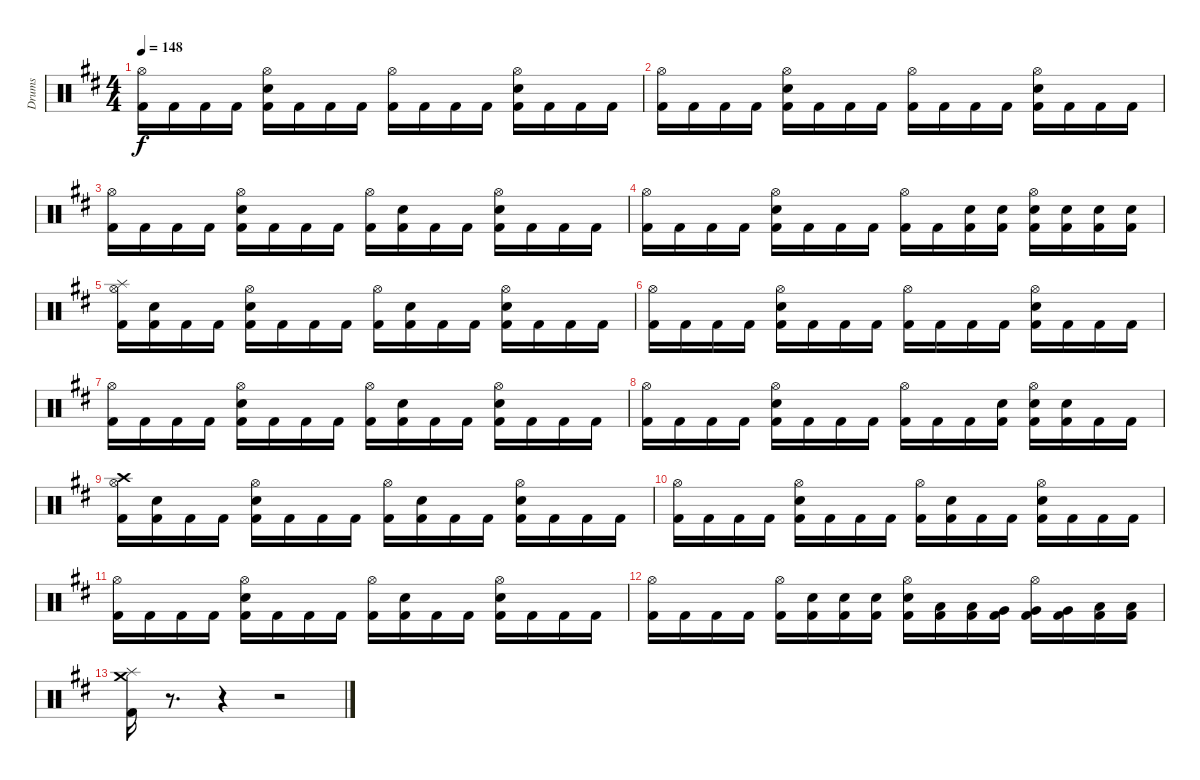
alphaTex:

\track ("Drums" "Drums") {instrument percussion}
\staff {score}
\articulation defaults
\ts (4 4)
\tempo 148
\clef neutral
\ks d
("Hi-Hat (open)" "Kick (hit) 2").16{dy f} "Kick (hit) 2".16 "Kick (hit) 2".16 "Kick (hit) 2".16 ("Hi-Hat (open)" "Kick (hit) 2" "Snare (hit) 2").16 "Kick (hit) 2".16 "Kick (hit) 2".16 "Kick (hit) 2".16 ("Hi-Hat (open)" "Kick (hit) 2").16 "Kick (hit) 2".16 "Kick (hit) 2".16 "Kick (hit) 2".16 ("Hi-Hat (open)" "Kick (hit) 2" "Snare (hit) 2").16 "Kick (hit) 2".16 "Kick (hit) 2".16 "Kick (hit) 2".16 |
("Hi-Hat (open)" "Kick (hit) 2").16 "Kick (hit) 2".16 "Kick (hit) 2".16 "Kick (hit) 2".16 ("Hi-Hat (open)" "Kick (hit) 2" "Snare (hit) 2").16 "Kick (hit) 2".16 "Kick (hit) 2".16 "Kick (hit) 2".16 ("Hi-Hat (open)" "Kick (hit) 2").16 "Kick (hit) 2".16 "Kick (hit) 2".16 "Kick (hit) 2".16 ("Hi-Hat (open)" "Kick (hit) 2" "Snare (hit) 2").16 "Kick (hit) 2".16 "Kick (hit) 2".16 "Kick (hit) 2".16 |
("Hi-Hat (open)" "Kick (hit) 2").16 "Kick (hit) 2".16 "Kick (hit) 2".16 "Kick (hit) 2".16 ("Hi-Hat (open)" "Kick (hit) 2" "Snare (hit) 2").16 "Kick (hit) 2".16 "Kick (hit) 2".16 "Kick (hit) 2".16 ("Hi-Hat (open)" "Kick (hit) 2").16 ("Kick (hit) 2" "Snare (hit) 2").16 "Kick (hit) 2".16 "Kick (hit) 2".16 ("Hi-Hat (open)" "Kick (hit) 2" "Snare (hit) 2").16 "Kick (hit) 2".16 "Kick (hit) 2".16 "Kick (hit) 2".16 |
("Hi-Hat (open)" "Kick (hit) 2").16 "Kick (hit) 2".16 "Kick (hit) 2".16 "Kick (hit) 2".16 ("Hi-Hat (open)" "Kick (hit) 2" "Snare (hit) 2").16 "Kick (hit) 2".16 "Kick (hit) 2".16 "Kick (hit) 2".16 ("Hi-Hat (open)" "Kick (hit) 2").16 "Kick (hit) 2".16 ("Kick (hit) 2" "Snare (hit) 2").16 ("Kick (hit) 2" "Snare (hit) 2").16 ("Hi-Hat (open)" "Kick (hit) 2" "Snare (hit) 2").16 ("Kick (hit) 2" "Snare (hit) 2").16 ("Kick (hit) 2" "Snare (hit) 2").16 ("Kick (hit) 2" "Snare (hit) 2").16 |
("Hi-Hat (open)" "Splash (hit)" "Kick (hit) 2").16 ("Snare (hit)" "Kick (hit) 2").16 "Kick (hit) 2".16 "Kick (hit) 2".16 ("Hi-Hat (open)" "Kick (hit) 2" "Snare (hit) 2").16 "Kick (hit) 2".16 "Kick (hit) 2".16 "Kick (hit) 2".16 ("Hi-Hat (open)" "Kick (hit) 2").16 ("Kick (hit) 2" "Snare (hit) 2").16 "Kick (hit) 2".16 "Kick (hit) 2".16 ("Hi-Hat (open)" "Kick (hit) 2" "Snare (hit) 2").16 "Kick (hit) 2".16 "Kick (hit) 2".16 "Kick (hit) 2".16 |
("Hi-Hat (open)" "Kick (hit) 2").16 "Kick (hit) 2".16 "Kick (hit) 2".16 "Kick (hit) 2".16 ("Hi-Hat (open)" "Kick (hit) 2" "Snare (hit) 2").16 "Kick (hit) 2".16 "Kick (hit) 2".16 "Kick (hit) 2".16 ("Hi-Hat (open)" "Kick (hit) 2").16 "Kick (hit) 2".16 "Kick (hit) 2".16 "Kick (hit) 2".16 ("Hi-Hat (open)" "Kick (hit) 2" "Snare (hit) 2").16 "Kick (hit) 2".16 "Kick (hit) 2".16 "Kick (hit) 2".16 |
("Hi-Hat (open)" "Kick (hit) 2").16 "Kick (hit) 2".16 "Kick (hit) 2".16 "Kick (hit) 2".16 ("Hi-Hat (open)" "Kick (hit) 2" "Snare (hit) 2").16 "Kick (hit) 2".16 "Kick (hit) 2".16 "Kick (hit) 2".16 ("Hi-Hat (open)" "Kick (hit) 2").16 ("Kick (hit) 2" "Snare (hit) 2").16 "Kick (hit) 2".16 "Kick (hit) 2".16 ("Hi-Hat (open)" "Kick (hit) 2" "Snare (hit) 2").16 "Kick (hit) 2".16 "Kick (hit) 2".16 "Kick (hit) 2".16 |
("Hi-Hat (open)" "Kick (hit) 2").16 "Kick (hit) 2".16 "Kick (hit) 2".16 "Kick (hit) 2".16 ("Hi-Hat (open)" "Kick (hit) 2" "Snare (hit) 2").16 "Kick (hit) 2".16 "Kick (hit) 2".16 "Kick (hit) 2".16 ("Hi-Hat (open)" "Kick (hit) 2").16 "Kick (hit) 2".16 "Kick (hit) 2".16 ("Kick (hit) 2" "Snare (hit) 2").16 ("Hi-Hat (open)" "Kick (hit) 2" "Snare (hit) 2").16 ("Kick (hit) 2" "Snare (hit) 2").16 "Kick (hit) 2".16 "Kick (hit) 2".16 |
("Hi-Hat (open)" "Crash high (hit)" "Kick (hit) 2").16 ("Snare (hit)" "Kick (hit) 2").16 "Kick (hit) 2".16 "Kick (hit) 2".16 ("Hi-Hat (open)" "Kick (hit) 2" "Snare (hit) 2").16 "Kick (hit) 2".16 "Kick (hit) 2".16 "Kick (hit) 2".16 ("Hi-Hat (open)" "Kick (hit) 2").16 ("Kick (hit) 2" "Snare (hit) 2").16 "Kick (hit) 2".16 "Kick (hit) 2".16 ("Hi-Hat (open)" "Kick (hit) 2" "Snare (hit) 2").16 "Kick (hit) 2".16 "Kick (hit) 2".16 "Kick (hit) 2".16 |
("Hi-Hat (open)" "Kick (hit) 2").16 "Kick (hit) 2".16 "Kick (hit) 2".16 "Kick (hit) 2".16 ("Hi-Hat (open)" "Kick (hit) 2" "Snare (hit) 2").16 "Kick (hit) 2".16 "Kick (hit) 2".16 "Kick (hit) 2".16 ("Hi-Hat (open)" "Kick (hit) 2").16 ("Kick (hit) 2" "Snare (hit) 2").16 "Kick (hit) 2".16 "Kick (hit) 2".16 ("Hi-Hat (open)" "Kick (hit) 2" "Snare (hit) 2").16 "Kick (hit) 2".16 "Kick (hit) 2".16 "Kick (hit) 2".16 |
("Hi-Hat (open)" "Kick (hit) 2").16 "Kick (hit) 2".16 "Kick (hit) 2".16 "Kick (hit) 2".16 ("Hi-Hat (open)" "Kick (hit) 2" "Snare (hit) 2").16 "Kick (hit) 2".16 "Kick (hit) 2".16 "Kick (hit) 2".16 ("Hi-Hat (open)" "Kick (hit) 2").16 ("Kick (hit) 2" "Snare (hit) 2").16 "Kick (hit) 2".16 "Kick (hit) 2".16 ("Hi-Hat (open)" "Kick (hit) 2" "Snare (hit) 2").16 "Kick (hit) 2".16 "Kick (hit) 2".16 "Kick (hit) 2".16 |
("Hi-Hat (open)" "Kick (hit) 2").16 "Kick (hit) 2".16 "Kick (hit) 2".16 "Kick (hit) 2".16 ("Hi-Hat (open)" "Kick (hit) 2").16 ("Kick (hit) 2" "Snare (hit) 2").16 ("Kick (hit) 2" "Snare (hit) 2").16 ("Kick (hit) 2" "Snare (hit) 2").16 ("Hi-Hat (open)" "Kick (hit) 2" "Snare (hit) 2").16 ("Low Tom (hit)" "Kick (hit) 2").16 ("Low Tom (hit)" "Kick (hit) 2").16 ("Very Low Tom (hit)" "Kick (hit) 2").16 ("Very Low Tom (hit)" "Hi-Hat (open)" "Kick (hit) 2").16 ("Very Low Tom (hit)" "Kick (hit) 2").16 ("Low Floor Tom (hit)" "Kick (hit) 2").16 ("Low Floor Tom (hit)" "Kick (hit) 2").16 |
("Splash (hit)" "Crash medium (hit)" "Kick (hit) 2").16 r.8{d} r.4 r.2
